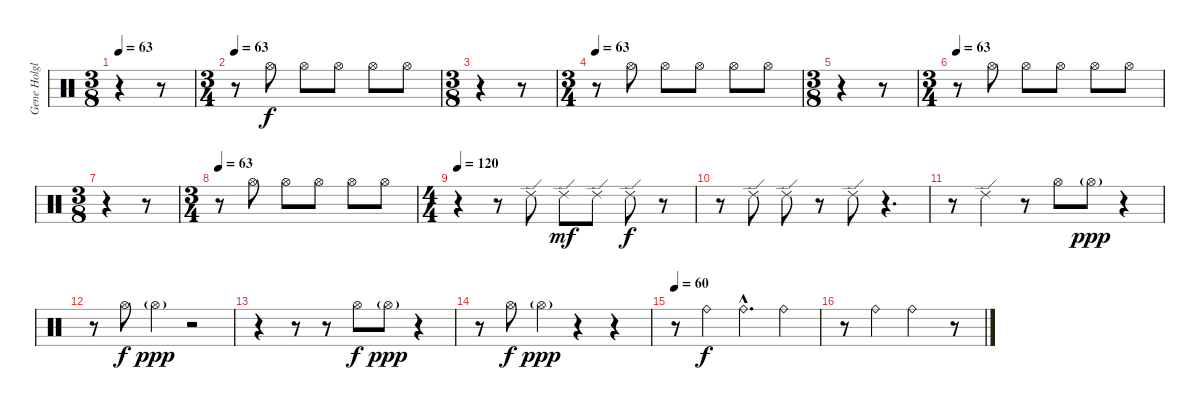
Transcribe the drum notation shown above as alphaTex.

\track ("Gene Holglan" "Gene Holgl") {instrument percussion}
\staff {score}
\articulation defaults
\ts (3 8)
\tempo 63
\clef neutral
\ks c
r.4{dy f} r.8 |
\ts (3 4)
\tempo 63
r.8 "Hi-Hat (open)".8 "Hi-Hat (open)".8 "Hi-Hat (open)".8 "Hi-Hat (open)".8 "Hi-Hat (open)".8 |
\ts (3 8)
r.4 r.8 |
\ts (3 4)
\tempo 63
r.8 "Hi-Hat (open)".8 "Hi-Hat (open)".8 "Hi-Hat (open)".8 "Hi-Hat (open)".8 "Hi-Hat (open)".8 |
\ts (3 8)
r.4 r.8 |
\ts (3 4)
\tempo 63
r.8 "Hi-Hat (open)".8 "Hi-Hat (open)".8 "Hi-Hat (open)".8 "Hi-Hat (open)".8 "Hi-Hat (open)".8 |
\ts (3 8)
r.4 r.8 |
\ts (3 4)
\tempo 63
r.8 "Hi-Hat (open)".8 "Hi-Hat (open)".8 "Hi-Hat (open)".8 "Hi-Hat (open)".8 "Hi-Hat (open)".8 |
\ts (4 4)
\tempo 120
r.4 r.8 "Ride (edge) 2".8 "Ride (edge) 2".8{dy mf} "Ride (edge) 2".8 "Ride (edge) 2".8{dy f} r.8 |
r.8 "Ride (edge) 2".8 "Ride (edge) 2".8 r.8 "Ride (edge) 2".8 r.4{d} |
r.8 "Ride (edge) 2".4 r.8 "Hi-Hat (open)".8 "Hi-Hat (open)"{g}.8{dy ppp} r.4 |
r.8 "Hi-Hat (open)".8{dy f} "Hi-Hat (open)"{g}.4{dy ppp} r.2 |
r.4 r.8 r.8 "Hi-Hat (open)".8{dy f} "Hi-Hat (open)"{g}.8{dy ppp} r.4 |
r.8 "Hi-Hat (open)".8{dy f} "Hi-Hat (open)"{g}.4{dy ppp} r.4 r.4 |
\tempo 60
r.8 "Ride (bell)".4{dy f} "Ride (bell)"{hac}.4{d} "Ride (bell)".4 |
r.8 "Ride (bell)".4 "Ride (bell)".2 r.8
